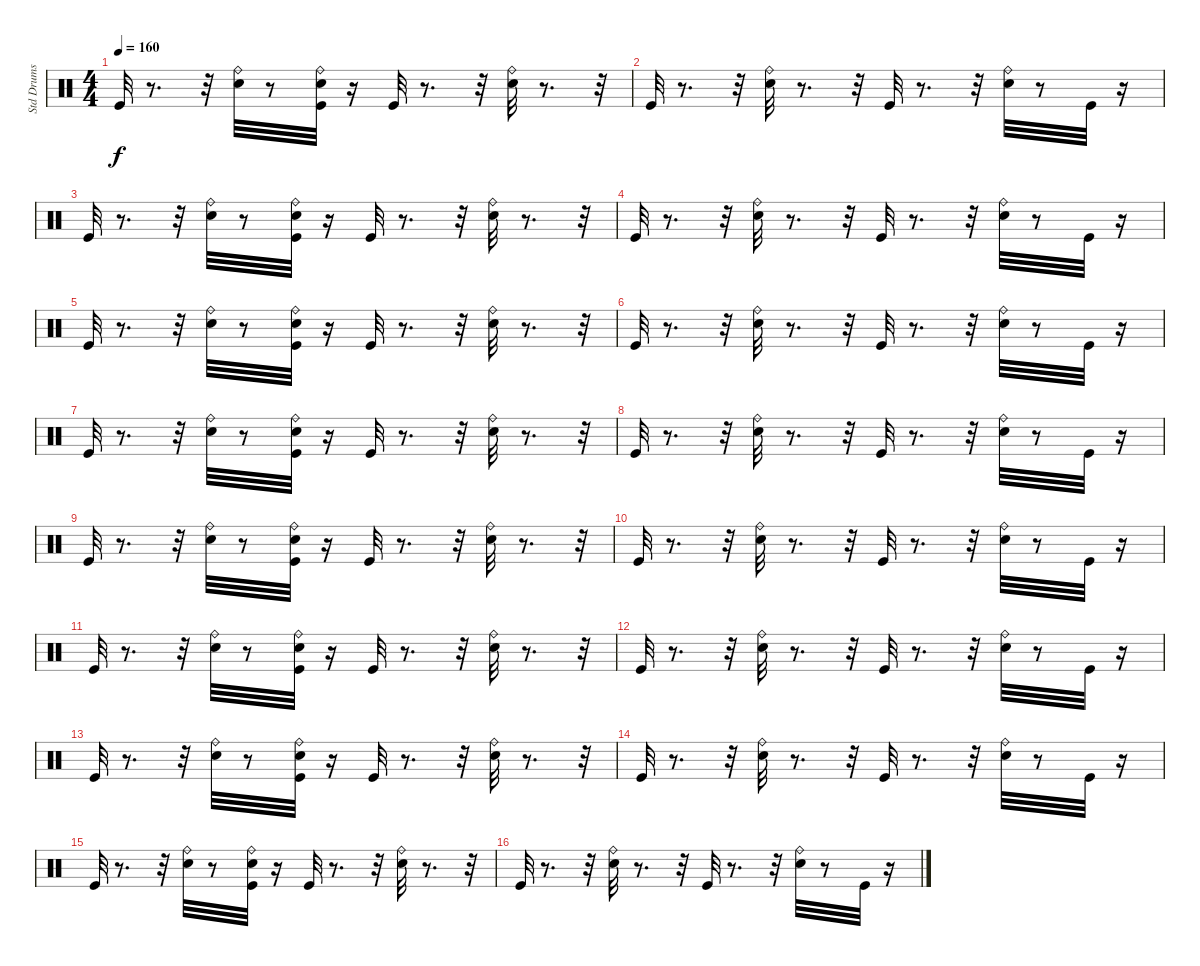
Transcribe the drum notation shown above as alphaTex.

\track ("Std Drums" "Std Drums") {instrument percussion}
\staff {score}
\articulation defaults
\ts (4 4)
\tempo 160
\clef neutral
\ks c "Kick (hit)".32{dy f}
r.8{d} r.32 ("Ride (bell)" "Snare (hit) 2").32 r.8 ("Snare (hit) 2" "Kick (hit)" "Ride (bell)").32 r.16 "Kick (hit)".32 r.8{d} r.32 ("Snare (hit) 2" "Ride (bell)").32 r.8{d} r.32 |
"Kick (hit)".32 r.8{d} r.32 ("Ride (bell)" "Snare (hit) 2").32 r.8{d} r.32 "Kick (hit)".32 r.8{d} r.32 ("Snare (hit) 2" "Ride (bell)").32 r.8 "Kick (hit)".32 r.16 |
"Kick (hit)".32 r.8{d} r.32 ("Ride (bell)" "Snare (hit) 2").32 r.8 ("Ride (bell)" "Snare (hit) 2" "Kick (hit)").32 r.16 "Kick (hit)".32 r.8{d} r.32 ("Snare (hit) 2" "Ride (bell)").32 r.8{d} r.32 |
"Kick (hit)".32 r.8{d} r.32 ("Ride (bell)" "Snare (hit) 2").32 r.8{d} r.32 "Kick (hit)".32 r.8{d} r.32 ("Ride (bell)" "Snare (hit) 2").32 r.8 "Kick (hit)".32 r.16 |
"Kick (hit)".32 r.8{d} r.32 ("Snare (hit) 2" "Ride (bell)").32 r.8 ("Ride (bell)" "Snare (hit) 2" "Kick (hit)").32 r.16 "Kick (hit)".32 r.8{d} r.32 ("Ride (bell)" "Snare (hit) 2").32 r.8{d} r.32 |
"Kick (hit)".32 r.8{d} r.32 ("Snare (hit) 2" "Ride (bell)").32 r.8{d} r.32 "Kick (hit)".32 r.8{d} r.32 ("Ride (bell)" "Snare (hit) 2").32 r.8 "Kick (hit)".32 r.16 |
"Kick (hit)".32{volume 12} r.8{d} r.32 ("Ride (bell)" "Snare (hit) 2").32{volume 12} r.8 ("Snare (hit) 2" "Kick (hit)" "Ride (bell)").32{volume 12} r.16 "Kick (hit)".32{volume 12} r.8{d} r.32 ("Snare (hit) 2" "Ride (bell)").32{volume 12} r.8{d} r.32 |
"Kick (hit)".32{volume 12} r.8{d} r.32 ("Ride (bell)" "Snare (hit) 2").32{volume 12} r.8{d} r.32 "Kick (hit)".32{volume 11} r.8{d} r.32 ("Ride (bell)" "Snare (hit) 2").32{volume 11} r.8 "Kick (hit)".32{volume 11} r.16 |
"Kick (hit)".32{volume 11} r.8{d} r.32 ("Ride (bell)" "Snare (hit) 2").32{volume 10} r.8 ("Ride (bell)" "Kick (hit)" "Snare (hit) 2").32{volume 10} r.16 "Kick (hit)".32 r.8{d} r.32 ("Snare (hit) 2" "Ride (bell)").32{volume 10} r.8{d} r.32 |
"Kick (hit)".32{volume 10} r.8{d} r.32 ("Snare (hit) 2" "Ride (bell)").32{volume 10} r.8{d} r.32 "Kick (hit)".32{volume 9} r.8{d} r.32 ("Ride (bell)" "Snare (hit) 2").32{volume 9} r.8 "Kick (hit)".32{volume 9} r.16 |
"Kick (hit)".32{volume 9} r.8{d} r.32 ("Snare (hit) 2" "Ride (bell)").32{volume 9} r.8 ("Ride (bell)" "Kick (hit)" "Snare (hit) 2").32{volume 9} r.16 "Kick (hit)".32{volume 8} r.8{d} r.32 ("Ride (bell)" "Snare (hit) 2").32{volume 8} r.8{d} r.32 |
"Kick (hit)".32{volume 8} r.8{d} r.32 ("Snare (hit) 2" "Ride (bell)").32{volume 8} r.8{d} r.32 "Kick (hit)".32{volume 8} r.8{d} r.32 ("Ride (bell)" "Snare (hit) 2").32{volume 7} r.8 "Kick (hit)".32{volume 7} r.16 |
"Kick (hit)".32 r.8{d} r.32 ("Ride (bell)" "Snare (hit) 2").32{volume 7} r.8 ("Ride (bell)" "Kick (hit)" "Snare (hit) 2").32{volume 7} r.16 "Kick (hit)".32{volume 7} r.8{d} r.32 ("Ride (bell)" "Snare (hit) 2").32{volume 6} r.8{d} r.32 |
"Kick (hit)".32{volume 6} r.8{d} r.32 ("Snare (hit) 2" "Ride (bell)").32{volume 6} r.8{d} r.32 "Kick (hit)".32{volume 6} r.8{d} r.32 ("Snare (hit) 2" "Ride (bell)").32{volume 6} r.8 "Kick (hit)".32{volume 6} r.16 |
"Kick (hit)".32{volume 5} r.8{d} r.32 ("Snare (hit) 2" "Ride (bell)").32{volume 5} r.8 ("Ride (bell)" "Snare (hit) 2" "Kick (hit)").32{volume 5} r.16 "Kick (hit)".32 r.8{d} r.32 ("Snare (hit) 2" "Ride (bell)").32{volume 5} r.8{d} r.32 |
"Kick (hit)".32{volume 4} r.8{d} r.32 ("Ride (bell)" "Snare (hit) 2").32{volume 4} r.8{d} r.32 "Kick (hit)".32{volume 4} r.8{d} r.32 ("Ride (bell)" "Snare (hit) 2").32{volume 4} r.8 "Kick (hit)".32{volume 4} r.16
